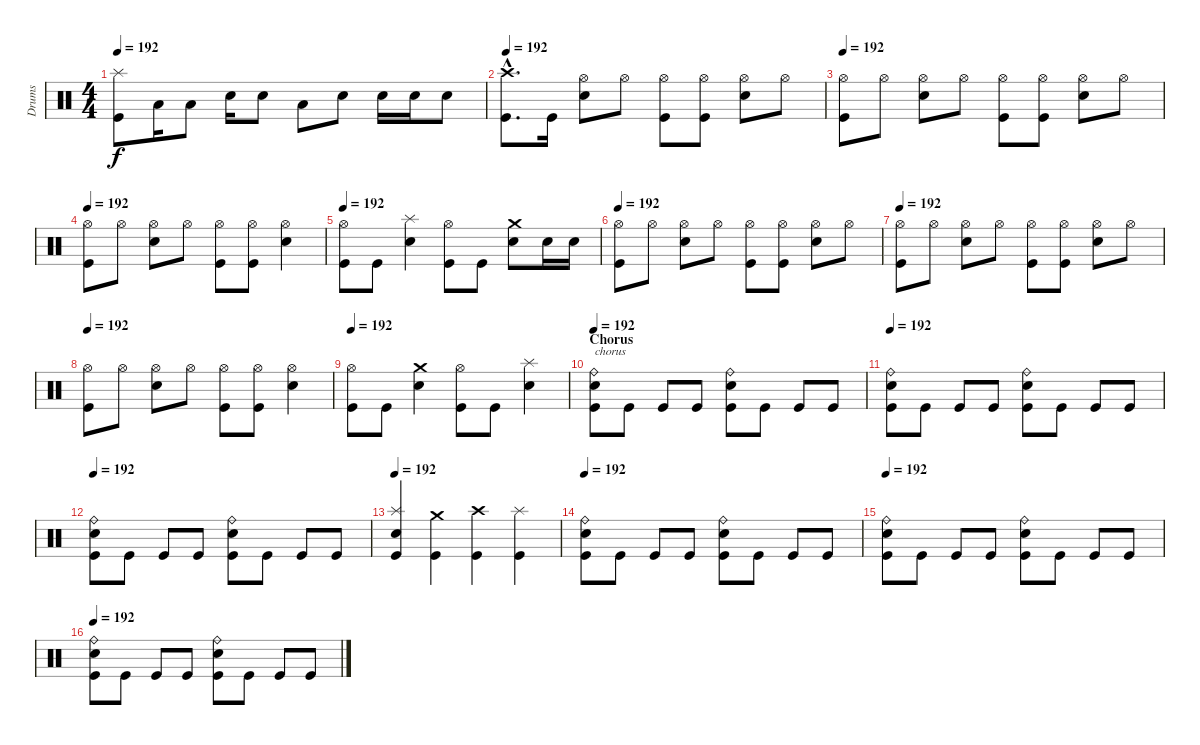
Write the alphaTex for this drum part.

\track ("Drums" "Drums") {instrument percussion}
\staff {score}
\articulation defaults
\ts (4 4)
\tempo 192
\clef neutral
\ks c
("Kick (hit)" "Splash (hit)").8{dy f} "Low Tom (hit)".16 "Low Tom (hit)".8 "Electric Snare (hit)".16 "Electric Snare (hit)".8 "Low Tom (hit)".8 "Electric Snare (hit)".8 "Electric Snare (hit)".16 "Electric Snare (hit)".16 "Electric Snare (hit)".8 |
\tempo 192
("Kick (hit)"{hac} "Crash high (hit)"{hac}).8{d} "Kick (hit)".16 ("Electric Snare (hit)" "Hi-Hat (open)").8 "Hi-Hat (open)".8 ("Kick (hit)" "Hi-Hat (open)").8 ("Kick (hit)" "Hi-Hat (open)").8 ("Electric Snare (hit)" "Hi-Hat (open)").8 "Hi-Hat (open)".8 |
\tempo 192
("Kick (hit)" "Hi-Hat (open)").8 "Hi-Hat (open)".8 ("Electric Snare (hit)" "Hi-Hat (open)").8 "Hi-Hat (open)".8 ("Kick (hit)" "Hi-Hat (open)").8 ("Kick (hit)" "Hi-Hat (open)").8 ("Electric Snare (hit)" "Hi-Hat (open)").8 "Hi-Hat (open)".8 |
\tempo 192
("Kick (hit)" "Hi-Hat (open)").8 "Hi-Hat (open)".8 ("Electric Snare (hit)" "Hi-Hat (open)").8 "Hi-Hat (open)".8 ("Kick (hit)" "Hi-Hat (open)").8 ("Kick (hit)" "Hi-Hat (open)").8 ("Electric Snare (hit)" "Hi-Hat (open)").4 |
\tempo 192
("Kick (hit)" "Hi-Hat (open)").8 "Kick (hit)".8 ("Electric Snare (hit)" "Splash (hit)").4 ("Kick (hit)" "Hi-Hat (open)").8 "Kick (hit)".8 ("Electric Snare (hit)" "Crash medium (hit)").8 "Electric Snare (hit)".16 "Electric Snare (hit)".16 |
\tempo 192
("Kick (hit)" "Hi-Hat (open)").8 "Hi-Hat (open)".8 ("Electric Snare (hit)" "Hi-Hat (open)").8 "Hi-Hat (open)".8 ("Kick (hit)" "Hi-Hat (open)").8 ("Kick (hit)" "Hi-Hat (open)").8 ("Electric Snare (hit)" "Hi-Hat (open)").8 "Hi-Hat (open)".8 |
\tempo 192
("Kick (hit)" "Hi-Hat (open)").8 "Hi-Hat (open)".8 ("Electric Snare (hit)" "Hi-Hat (open)").8 "Hi-Hat (open)".8 ("Kick (hit)" "Hi-Hat (open)").8 ("Kick (hit)" "Hi-Hat (open)").8 ("Electric Snare (hit)" "Hi-Hat (open)").8 "Hi-Hat (open)".8 |
\tempo 192
("Kick (hit)" "Hi-Hat (open)").8 "Hi-Hat (open)".8 ("Electric Snare (hit)" "Hi-Hat (open)").8 "Hi-Hat (open)".8 ("Kick (hit)" "Hi-Hat (open)").8 ("Kick (hit)" "Hi-Hat (open)").8 ("Electric Snare (hit)" "Hi-Hat (open)").4 |
\tempo 192
("Kick (hit)" "Hi-Hat (open)").8 "Kick (hit)".8 ("Electric Snare (hit)" "Crash medium (hit)").4 ("Kick (hit)" "Hi-Hat (open)").8 "Kick (hit)".8 ("Electric Snare (hit)" "Splash (hit)").4 |
\section ("" "Chorus")
\tempo 192
("Kick (hit)" "Electric Snare (hit)" "Ride (bell)").8{txt "chorus"} "Kick (hit)".8 "Kick (hit)".8 "Kick (hit)".8 ("Kick (hit)" "Electric Snare (hit)" "Ride (bell)").8 "Kick (hit)".8 "Kick (hit)".8 "Kick (hit)".8 |
\tempo 192
("Kick (hit)" "Electric Snare (hit)" "Ride (bell)").8 "Kick (hit)".8 "Kick (hit)".8 "Kick (hit)".8 ("Kick (hit)" "Electric Snare (hit)" "Ride (bell)").8 "Kick (hit)".8 "Kick (hit)".8 "Kick (hit)".8 |
\tempo 192
("Kick (hit)" "Electric Snare (hit)" "Ride (bell)").8 "Kick (hit)".8 "Kick (hit)".8 "Kick (hit)".8 ("Kick (hit)" "Electric Snare (hit)" "Ride (bell)").8 "Kick (hit)".8 "Kick (hit)".8 "Kick (hit)".8 |
\tempo 192
("Kick (hit)" "Electric Snare (hit)" "Splash (hit)").4 ("Kick (hit)" "Crash medium (hit)").4 ("Kick (hit)" "Crash high (hit)").4 ("Kick (hit)" "Splash (hit)").4 |
\tempo 192
("Kick (hit)" "Electric Snare (hit)" "Ride (bell)").8 "Kick (hit)".8 "Kick (hit)".8 "Kick (hit)".8 ("Kick (hit)" "Electric Snare (hit)" "Ride (bell)").8 "Kick (hit)".8 "Kick (hit)".8 "Kick (hit)".8 |
\tempo 192
("Kick (hit)" "Electric Snare (hit)" "Ride (bell)").8 "Kick (hit)".8 "Kick (hit)".8 "Kick (hit)".8 ("Kick (hit)" "Electric Snare (hit)" "Ride (bell)").8 "Kick (hit)".8 "Kick (hit)".8 "Kick (hit)".8 |
\tempo 192
("Kick (hit)" "Electric Snare (hit)" "Ride (bell)").8 "Kick (hit)".8 "Kick (hit)".8 "Kick (hit)".8 ("Kick (hit)" "Electric Snare (hit)" "Ride (bell)").8 "Kick (hit)".8 "Kick (hit)".8 "Kick (hit)".8
